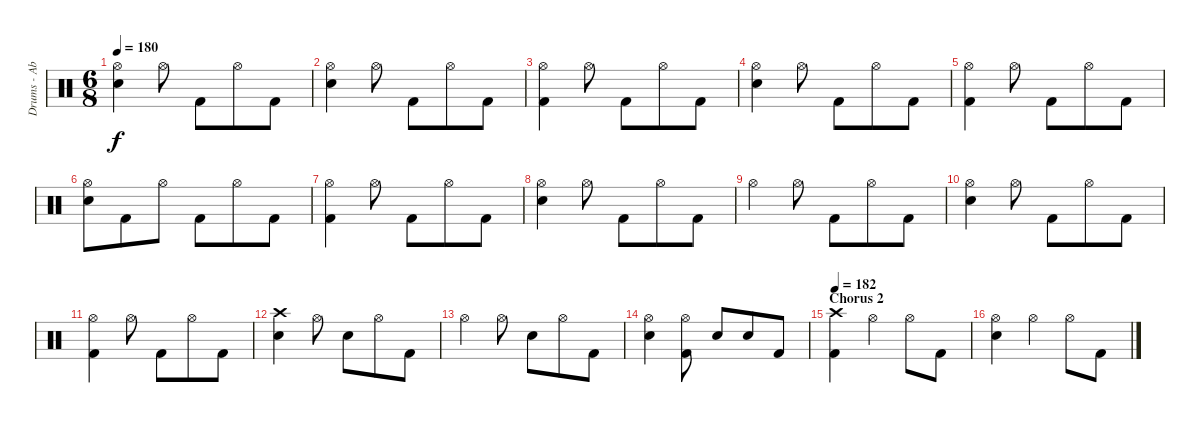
\track ("Drums - Abe Cunningham" "Drums - Ab") {instrument percussion}
\staff {score}
\articulation defaults
\ts (6 8)
\tempo 180
\clef neutral
\ks c
("Hi-Hat (open)" "Electric Snare (hit)").4{dy f} "Hi-Hat (open)".8 "Kick (hit) 2".8 "Hi-Hat (open)".8 "Kick (hit) 2".8 |
("Hi-Hat (open)" "Electric Snare (hit)").4 "Hi-Hat (open)".8 "Kick (hit) 2".8 "Hi-Hat (open)".8 "Kick (hit) 2".8 |
("Hi-Hat (open)" "Kick (hit) 2").4 "Hi-Hat (open)".8 "Kick (hit) 2".8 "Hi-Hat (open)".8 "Kick (hit) 2".8 |
("Hi-Hat (open)" "Electric Snare (hit)").4 "Hi-Hat (open)".8 "Kick (hit) 2".8 "Hi-Hat (open)".8 "Kick (hit) 2".8 |
("Hi-Hat (open)" "Kick (hit) 2").4 "Hi-Hat (open)".8 "Kick (hit) 2".8 "Hi-Hat (open)".8 "Kick (hit) 2".8 |
("Hi-Hat (open)" "Electric Snare (hit)").8 "Kick (hit) 2".8 "Hi-Hat (open)".8 "Kick (hit) 2".8 "Hi-Hat (open)".8 "Kick (hit) 2".8 |
("Hi-Hat (open)" "Kick (hit) 2").4 "Hi-Hat (open)".8 "Kick (hit) 2".8 "Hi-Hat (open)".8 "Kick (hit) 2".8 |
("Hi-Hat (open)" "Electric Snare (hit)").4 "Hi-Hat (open)".8 "Kick (hit) 2".8 "Hi-Hat (open)".8 "Kick (hit) 2".8 |
"Hi-Hat (open)".4 "Hi-Hat (open)".8 "Kick (hit) 2".8 "Hi-Hat (open)".8 "Kick (hit) 2".8 |
("Hi-Hat (open)" "Electric Snare (hit)").4 "Hi-Hat (open)".8 "Kick (hit) 2".8 "Hi-Hat (open)".8 "Kick (hit) 2".8 |
("Hi-Hat (open)" "Kick (hit) 2").4 "Hi-Hat (open)".8 "Kick (hit) 2".8 "Hi-Hat (open)".8 "Kick (hit) 2".8 |
("Crash high (hit)" "Electric Snare (hit)").4 "Hi-Hat (open)".8 "Electric Snare (hit)".8 "Hi-Hat (open)".8 "Kick (hit) 2".8 |
"Hi-Hat (open)".4 "Hi-Hat (open)".8 "Electric Snare (hit)".8 "Hi-Hat (open)".8 "Kick (hit) 2".8 |
("Hi-Hat (open)" "Electric Snare (hit)").4 ("Hi-Hat (open)" "Kick (hit) 2").8 "Electric Snare (hit)".8 "Electric Snare (hit)".8 "Kick (hit) 2".8 |
\section ("" "Chorus 2")
\tempo 182
("Crash high (hit)" "Kick (hit) 2").4 "Hi-Hat (open)".4 "Hi-Hat (open)".8 "Kick (hit) 2".8 |
("Hi-Hat (open)" "Electric Snare (hit)").4 "Hi-Hat (open)".4 "Hi-Hat (open)".8 "Kick (hit) 2".8
